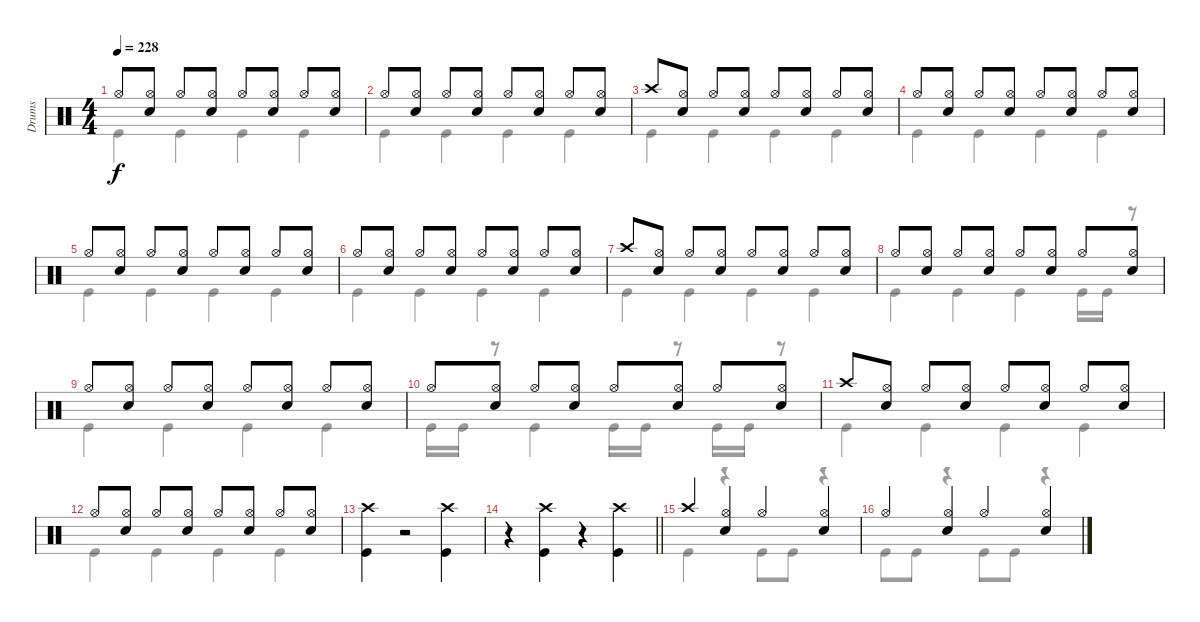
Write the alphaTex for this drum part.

\track ("Drums" "Drums") {instrument percussion}
\staff {score}
\articulation defaults
\voice
\ts (4 4)
\tempo 228
\clef neutral
\ks c "Hi-Hat (open)".8{dy f}
("Hi-Hat (open)" "Snare (hit) 2").8 "Hi-Hat (open)".8 ("Hi-Hat (open)" "Snare (hit) 2").8 "Hi-Hat (open)".8 ("Hi-Hat (open)" "Snare (hit) 2").8 "Hi-Hat (open)".8 ("Hi-Hat (open)" "Snare (hit) 2").8 |
"Hi-Hat (open)".8 ("Hi-Hat (open)" "Snare (hit) 2").8 "Hi-Hat (open)".8 ("Hi-Hat (open)" "Snare (hit) 2").8 "Hi-Hat (open)".8 ("Hi-Hat (open)" "Snare (hit) 2").8 "Hi-Hat (open)".8 ("Hi-Hat (open)" "Snare (hit) 2").8 |
"Crash high (hit)".8 ("Hi-Hat (open)" "Snare (hit) 2").8 "Hi-Hat (open)".8 ("Hi-Hat (open)" "Snare (hit) 2").8 "Hi-Hat (open)".8 ("Hi-Hat (open)" "Snare (hit) 2").8 "Hi-Hat (open)".8 ("Hi-Hat (open)" "Snare (hit) 2").8 |
"Hi-Hat (open)".8 ("Hi-Hat (open)" "Snare (hit) 2").8 "Hi-Hat (open)".8 ("Hi-Hat (open)" "Snare (hit) 2").8 "Hi-Hat (open)".8 ("Hi-Hat (open)" "Snare (hit) 2").8 "Hi-Hat (open)".8 ("Hi-Hat (open)" "Snare (hit) 2").8 |
"Hi-Hat (open)".8 ("Hi-Hat (open)" "Snare (hit) 2").8 "Hi-Hat (open)".8 ("Hi-Hat (open)" "Snare (hit) 2").8 "Hi-Hat (open)".8 ("Hi-Hat (open)" "Snare (hit) 2").8 "Hi-Hat (open)".8 ("Hi-Hat (open)" "Snare (hit) 2").8 |
"Hi-Hat (open)".8 ("Hi-Hat (open)" "Snare (hit) 2").8 "Hi-Hat (open)".8 ("Hi-Hat (open)" "Snare (hit) 2").8 "Hi-Hat (open)".8 ("Hi-Hat (open)" "Snare (hit) 2").8 "Hi-Hat (open)".8 ("Hi-Hat (open)" "Snare (hit) 2").8 |
"Crash high (hit)".8 ("Hi-Hat (open)" "Snare (hit) 2").8 "Hi-Hat (open)".8 ("Hi-Hat (open)" "Snare (hit) 2").8 "Hi-Hat (open)".8 ("Hi-Hat (open)" "Snare (hit) 2").8 "Hi-Hat (open)".8 ("Hi-Hat (open)" "Snare (hit) 2").8 |
"Hi-Hat (open)".8 ("Hi-Hat (open)" "Snare (hit) 2").8 "Hi-Hat (open)".8 ("Hi-Hat (open)" "Snare (hit) 2").8 "Hi-Hat (open)".8 ("Hi-Hat (open)" "Snare (hit) 2").8 "Hi-Hat (open)".8 ("Hi-Hat (open)" "Snare (hit) 2").8 |
"Hi-Hat (open)".8 ("Hi-Hat (open)" "Snare (hit) 2").8 "Hi-Hat (open)".8 ("Hi-Hat (open)" "Snare (hit) 2").8 "Hi-Hat (open)".8 ("Hi-Hat (open)" "Snare (hit) 2").8 "Hi-Hat (open)".8 ("Hi-Hat (open)" "Snare (hit) 2").8 |
"Hi-Hat (open)".8 ("Hi-Hat (open)" "Snare (hit) 2").8 "Hi-Hat (open)".8 ("Hi-Hat (open)" "Snare (hit) 2").8 "Hi-Hat (open)".8 ("Hi-Hat (open)" "Snare (hit) 2").8 "Hi-Hat (open)".8 ("Hi-Hat (open)" "Snare (hit) 2").8 |
"Crash high (hit)".8 ("Hi-Hat (open)" "Snare (hit) 2").8 "Hi-Hat (open)".8 ("Hi-Hat (open)" "Snare (hit) 2").8 "Hi-Hat (open)".8 ("Hi-Hat (open)" "Snare (hit) 2").8 "Hi-Hat (open)".8 ("Hi-Hat (open)" "Snare (hit) 2").8 |
"Hi-Hat (open)".8 ("Hi-Hat (open)" "Snare (hit) 2").8 "Hi-Hat (open)".8 ("Hi-Hat (open)" "Snare (hit) 2").8 "Hi-Hat (open)".8 ("Hi-Hat (open)" "Snare (hit) 2").8 "Hi-Hat (open)".8 ("Hi-Hat (open)" "Snare (hit) 2").8 |
("Crash high (hit)" "Kick (hit)").4 r.2 ("Crash high (hit)" "Kick (hit)").4 |
\barLineRight lightlight
r.4 ("Crash high (hit)" "Kick (hit)").4 r.4 ("Crash high (hit)" "Kick (hit)").4 |
"Crash high (hit)".4 ("Hi-Hat (open)" "Snare (hit) 2").4 "Hi-Hat (open)".4 ("Hi-Hat (open)" "Snare (hit) 2").4 |
"Hi-Hat (open)".4 ("Hi-Hat (open)" "Snare (hit) 2").4 "Hi-Hat (open)".4 ("Hi-Hat (open)" "Snare (hit) 2").4
\voice
\clef neutral
\ottava regular
\simile none
\ks c "Kick (hit)".4{dy f} "Kick (hit)".4 "Kick (hit)".4 "Kick (hit)".4
|
"Kick (hit)".4 "Kick (hit)".4 "Kick (hit)".4 "Kick (hit)".4 |
"Kick (hit)".4 "Kick (hit)".4 "Kick (hit)".4 "Kick (hit)".4 |
"Kick (hit)".4 "Kick (hit)".4 "Kick (hit)".4 "Kick (hit)".4 |
"Kick (hit)".4 "Kick (hit)".4 "Kick (hit)".4 "Kick (hit)".4 |
"Kick (hit)".4 "Kick (hit)".4 "Kick (hit)".4 "Kick (hit)".4 |
"Kick (hit)".4 "Kick (hit)".4 "Kick (hit)".4 "Kick (hit)".4 |
"Kick (hit)".4 "Kick (hit)".4 "Kick (hit)".4 "Kick (hit)".16 "Kick (hit)".16 r.8 |
"Kick (hit)".4 "Kick (hit)".4 "Kick (hit)".4 "Kick (hit)".4 |
"Kick (hit)".16 "Kick (hit)".16 r.8 "Kick (hit)".4 "Kick (hit)".16 "Kick (hit)".16 r.8 "Kick (hit)".16 "Kick (hit)".16 r.8 |
"Kick (hit)".4 "Kick (hit)".4 "Kick (hit)".4 "Kick (hit)".4 |
"Kick (hit)".4 "Kick (hit)".4 "Kick (hit)".4 "Kick (hit)".4 |
|
\barLineRight lightlight
|
"Kick (hit)".4 r.4 "Kick (hit)".8 "Kick (hit)".8 r.4 |
"Kick (hit)".8 "Kick (hit)".8 r.4 "Kick (hit)".8 "Kick (hit)".8 r.4
